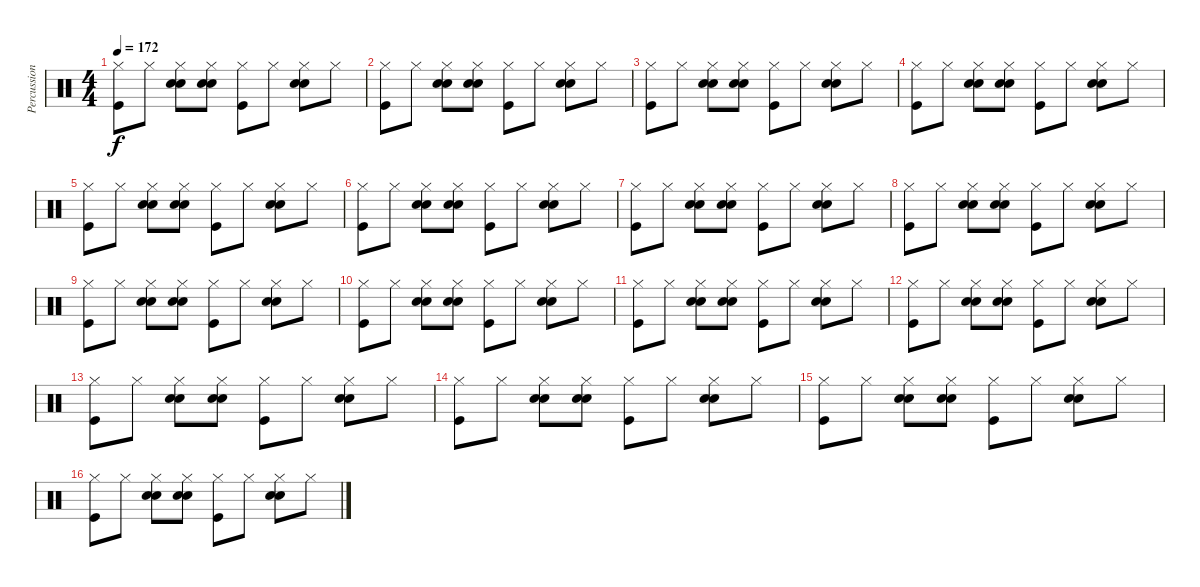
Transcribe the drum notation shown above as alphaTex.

\track ("Percussions" "Percussion") {instrument percussion}
\staff {score}
\articulation defaults
\ts (4 4)
\tempo 172
\clef neutral
\ks c
("Hi-Hat (closed)" "Kick (hit)").8{dy f} "Hi-Hat (closed)".8 ("Electric Snare (hit)" "Hi-Hat (closed)" "Snare (hit) 2").8 ("Electric Snare (hit)" "Hi-Hat (closed)" "Snare (hit) 2").8 ("Hi-Hat (closed)" "Kick (hit)").8 "Hi-Hat (closed)".8 ("Electric Snare (hit)" "Hi-Hat (closed)" "Snare (hit) 2").8 "Hi-Hat (closed)".8 |
("Hi-Hat (closed)" "Kick (hit)").8 "Hi-Hat (closed)".8 ("Electric Snare (hit)" "Hi-Hat (closed)" "Snare (hit) 2").8 ("Electric Snare (hit)" "Hi-Hat (closed)" "Snare (hit) 2").8 ("Hi-Hat (closed)" "Kick (hit)").8 "Hi-Hat (closed)".8 ("Electric Snare (hit)" "Hi-Hat (closed)" "Snare (hit) 2").8 "Hi-Hat (closed)".8 |
("Hi-Hat (closed)" "Kick (hit)").8 "Hi-Hat (closed)".8 ("Electric Snare (hit)" "Hi-Hat (closed)" "Snare (hit) 2").8 ("Electric Snare (hit)" "Hi-Hat (closed)" "Snare (hit) 2").8 ("Hi-Hat (closed)" "Kick (hit)").8 "Hi-Hat (closed)".8 ("Electric Snare (hit)" "Hi-Hat (closed)" "Snare (hit) 2").8 "Hi-Hat (closed)".8 |
("Hi-Hat (closed)" "Kick (hit)").8 "Hi-Hat (closed)".8 ("Electric Snare (hit)" "Hi-Hat (closed)" "Snare (hit) 2").8 ("Electric Snare (hit)" "Hi-Hat (closed)" "Snare (hit) 2").8 ("Hi-Hat (closed)" "Kick (hit)").8 "Hi-Hat (closed)".8 ("Electric Snare (hit)" "Hi-Hat (closed)" "Snare (hit) 2").8 "Hi-Hat (closed)".8 |
("Hi-Hat (closed)" "Kick (hit)").8 "Hi-Hat (closed)".8 ("Electric Snare (hit)" "Hi-Hat (closed)" "Snare (hit) 2").8 ("Electric Snare (hit)" "Hi-Hat (closed)" "Snare (hit) 2").8 ("Hi-Hat (closed)" "Kick (hit)").8 "Hi-Hat (closed)".8 ("Electric Snare (hit)" "Hi-Hat (closed)" "Snare (hit) 2").8 "Hi-Hat (closed)".8 |
("Hi-Hat (closed)" "Kick (hit)").8 "Hi-Hat (closed)".8 ("Electric Snare (hit)" "Hi-Hat (closed)" "Snare (hit) 2").8 ("Electric Snare (hit)" "Hi-Hat (closed)" "Snare (hit) 2").8 ("Hi-Hat (closed)" "Kick (hit)").8 "Hi-Hat (closed)".8 ("Electric Snare (hit)" "Hi-Hat (closed)" "Snare (hit) 2").8 "Hi-Hat (closed)".8 |
("Hi-Hat (closed)" "Kick (hit)").8 "Hi-Hat (closed)".8 ("Electric Snare (hit)" "Hi-Hat (closed)" "Snare (hit) 2").8 ("Electric Snare (hit)" "Hi-Hat (closed)" "Snare (hit) 2").8 ("Hi-Hat (closed)" "Kick (hit)").8 "Hi-Hat (closed)".8 ("Electric Snare (hit)" "Hi-Hat (closed)" "Snare (hit) 2").8 "Hi-Hat (closed)".8 |
("Hi-Hat (closed)" "Kick (hit)").8 "Hi-Hat (closed)".8 ("Electric Snare (hit)" "Hi-Hat (closed)" "Snare (hit) 2").8 ("Electric Snare (hit)" "Hi-Hat (closed)" "Snare (hit) 2").8 ("Hi-Hat (closed)" "Kick (hit)").8 "Hi-Hat (closed)".8 ("Electric Snare (hit)" "Hi-Hat (closed)" "Snare (hit) 2").8 "Hi-Hat (closed)".8 |
("Hi-Hat (closed)" "Kick (hit)").8 "Hi-Hat (closed)".8 ("Electric Snare (hit)" "Hi-Hat (closed)" "Snare (hit) 2").8 ("Electric Snare (hit)" "Hi-Hat (closed)" "Snare (hit) 2").8 ("Hi-Hat (closed)" "Kick (hit)").8 "Hi-Hat (closed)".8 ("Electric Snare (hit)" "Hi-Hat (closed)" "Snare (hit) 2").8 "Hi-Hat (closed)".8 |
("Hi-Hat (closed)" "Kick (hit)").8 "Hi-Hat (closed)".8 ("Electric Snare (hit)" "Hi-Hat (closed)" "Snare (hit) 2").8 ("Electric Snare (hit)" "Hi-Hat (closed)" "Snare (hit) 2").8 ("Hi-Hat (closed)" "Kick (hit)").8 "Hi-Hat (closed)".8 ("Electric Snare (hit)" "Hi-Hat (closed)" "Snare (hit) 2").8 "Hi-Hat (closed)".8 |
("Hi-Hat (closed)" "Kick (hit)").8 "Hi-Hat (closed)".8 ("Electric Snare (hit)" "Hi-Hat (closed)" "Snare (hit) 2").8 ("Electric Snare (hit)" "Hi-Hat (closed)" "Snare (hit) 2").8 ("Hi-Hat (closed)" "Kick (hit)").8 "Hi-Hat (closed)".8 ("Electric Snare (hit)" "Hi-Hat (closed)" "Snare (hit) 2").8 "Hi-Hat (closed)".8 |
("Hi-Hat (closed)" "Kick (hit)").8 "Hi-Hat (closed)".8 ("Electric Snare (hit)" "Hi-Hat (closed)" "Snare (hit) 2").8 ("Electric Snare (hit)" "Hi-Hat (closed)" "Snare (hit) 2").8 ("Hi-Hat (closed)" "Kick (hit)").8 "Hi-Hat (closed)".8 ("Electric Snare (hit)" "Hi-Hat (closed)" "Snare (hit) 2").8 "Hi-Hat (closed)".8 |
("Hi-Hat (closed)" "Kick (hit)").8 "Hi-Hat (closed)".8 ("Electric Snare (hit)" "Hi-Hat (closed)" "Snare (hit) 2").8 ("Electric Snare (hit)" "Hi-Hat (closed)" "Snare (hit) 2").8 ("Hi-Hat (closed)" "Kick (hit)").8 "Hi-Hat (closed)".8 ("Electric Snare (hit)" "Hi-Hat (closed)" "Snare (hit) 2").8 "Hi-Hat (closed)".8 |
("Hi-Hat (closed)" "Kick (hit)").8 "Hi-Hat (closed)".8 ("Electric Snare (hit)" "Hi-Hat (closed)" "Snare (hit) 2").8 ("Electric Snare (hit)" "Hi-Hat (closed)" "Snare (hit) 2").8 ("Hi-Hat (closed)" "Kick (hit)").8 "Hi-Hat (closed)".8 ("Electric Snare (hit)" "Hi-Hat (closed)" "Snare (hit) 2").8 "Hi-Hat (closed)".8 |
("Hi-Hat (closed)" "Kick (hit)").8 "Hi-Hat (closed)".8 ("Electric Snare (hit)" "Hi-Hat (closed)" "Snare (hit) 2").8 ("Electric Snare (hit)" "Hi-Hat (closed)" "Snare (hit) 2").8 ("Hi-Hat (closed)" "Kick (hit)").8 "Hi-Hat (closed)".8 ("Electric Snare (hit)" "Hi-Hat (closed)" "Snare (hit) 2").8 "Hi-Hat (closed)".8 |
("Hi-Hat (closed)" "Kick (hit)").8 "Hi-Hat (closed)".8 ("Electric Snare (hit)" "Hi-Hat (closed)" "Snare (hit) 2").8 ("Electric Snare (hit)" "Hi-Hat (closed)" "Snare (hit) 2").8 ("Hi-Hat (closed)" "Kick (hit)").8 "Hi-Hat (closed)".8 ("Electric Snare (hit)" "Hi-Hat (closed)" "Snare (hit) 2").8 "Hi-Hat (closed)".8
